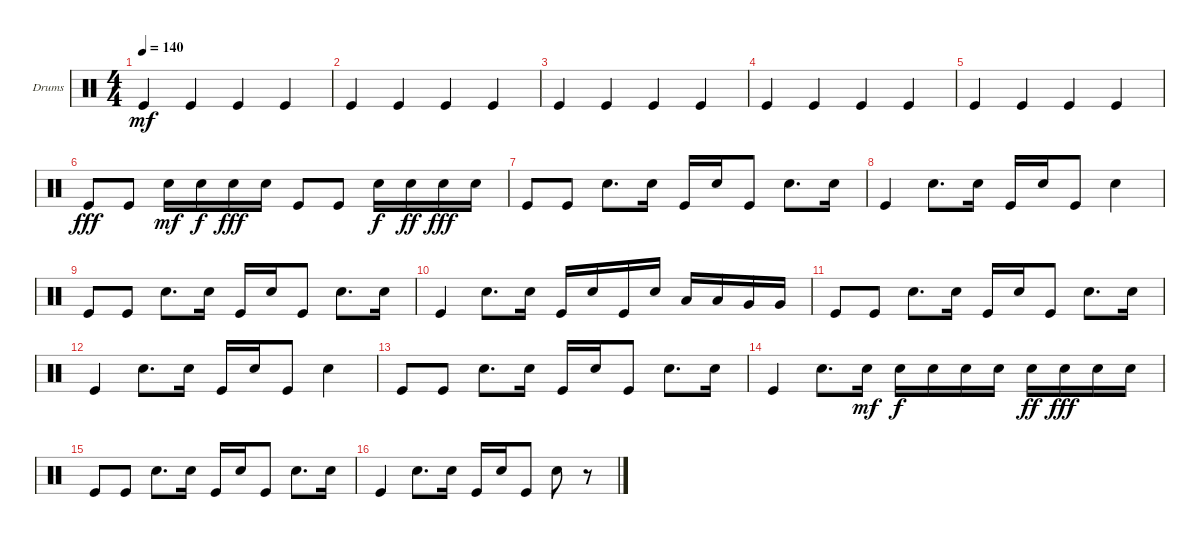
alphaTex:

\defaultSystemsLayout 4
\bracketExtendMode groupsimilarinstruments
\firstSystemTrackNameOrientation horizontal
\otherSystemsTrackNameOrientation horizontal
\track ("Helders" "Drums") {instrument percussion}
\staff {score}
\articulation defaults
\ts (4 4)
\tempo 140
\clef neutral
\ks c "Kick (hit)".4{dy mf} "Kick (hit)".4 "Kick (hit)".4 "Kick (hit)".4
|
"Kick (hit)".4 "Kick (hit)".4 "Kick (hit)".4 "Kick (hit)".4 |
"Kick (hit)".4 "Kick (hit)".4 "Kick (hit)".4 "Kick (hit)".4 |
"Kick (hit)".4 "Kick (hit)".4 "Kick (hit)".4 "Kick (hit)".4 |
"Kick (hit)".4 "Kick (hit)".4 "Kick (hit)".4 "Kick (hit)".4 |
"Kick (hit)".8{dy fff} "Kick (hit)".8 "Snare (hit) 2".16{dy mf} "Snare (hit) 2".16{dy f} "Snare (hit) 2".16{dy fff} "Snare (hit) 2".16 "Kick (hit)".8 "Kick (hit)".8 "Snare (hit) 2".16{dy f} "Snare (hit) 2".16{dy ff} "Snare (hit) 2".16{dy fff} "Snare (hit) 2".16 |
"Kick (hit)".8 "Kick (hit)".8 "Snare (hit) 2".8{d} "Snare (hit) 2".16 "Kick (hit)".16 "Snare (hit) 2".16 "Kick (hit)".8 "Snare (hit) 2".8{d} "Snare (hit) 2".16 |
"Kick (hit)".4 "Snare (hit) 2".8{d} "Snare (hit) 2".16 "Kick (hit)".16 "Snare (hit) 2".16 "Kick (hit)".8 "Snare (hit) 2".4 |
"Kick (hit)".8 "Kick (hit)".8 "Snare (hit) 2".8{d} "Snare (hit) 2".16 "Kick (hit)".16 "Snare (hit) 2".16 "Kick (hit)".8 "Snare (hit) 2".8{d} "Snare (hit) 2".16 |
"Kick (hit)".4 "Snare (hit) 2".8{d} "Snare (hit) 2".16 "Kick (hit)".16 "Snare (hit) 2".16 "Kick (hit)".16 "Snare (hit) 2".16 "Low Tom (hit)".16 "Low Tom (hit)".16 "Very Low Tom (hit)".16 "Very Low Tom (hit)".16 |
"Kick (hit)".8 "Kick (hit)".8 "Snare (hit) 2".8{d} "Snare (hit) 2".16 "Kick (hit)".16 "Snare (hit) 2".16 "Kick (hit)".8 "Snare (hit) 2".8{d} "Snare (hit) 2".16 |
"Kick (hit)".4 "Snare (hit) 2".8{d} "Snare (hit) 2".16 "Kick (hit)".16 "Snare (hit) 2".16 "Kick (hit)".8 "Snare (hit) 2".4 |
"Kick (hit)".8 "Kick (hit)".8 "Snare (hit) 2".8{d} "Snare (hit) 2".16 "Kick (hit)".16 "Snare (hit) 2".16 "Kick (hit)".8 "Snare (hit) 2".8{d} "Snare (hit) 2".16 |
"Kick (hit)".4 "Snare (hit) 2".8{d} "Snare (hit) 2".16{dy mf} "Snare (hit) 2".16{dy f} "Snare (hit) 2".16 "Snare (hit) 2".16 "Snare (hit) 2".16 "Snare (hit) 2".16{dy ff} "Snare (hit) 2".16{dy fff} "Snare (hit) 2".16 "Snare (hit) 2".16 |
"Kick (hit)".8 "Kick (hit)".8 "Snare (hit) 2".8{d} "Snare (hit) 2".16 "Kick (hit)".16 "Snare (hit) 2".16 "Kick (hit)".8 "Snare (hit) 2".8{d} "Snare (hit) 2".16 |
"Kick (hit)".4 "Snare (hit) 2".8{d} "Snare (hit) 2".16 "Kick (hit)".16 "Snare (hit) 2".16 "Kick (hit)".8 "Snare (hit) 2".8 r.8
